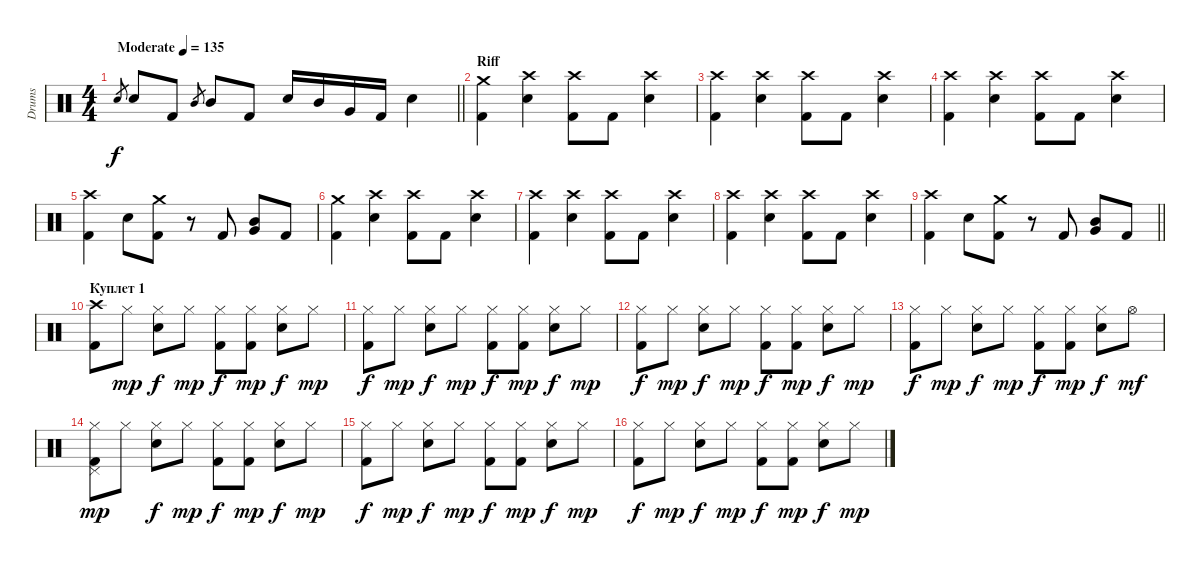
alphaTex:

\track ("Drums" "Drums") {instrument percussion}
\staff {score}
\articulation defaults
\ts (4 4)
\tempo (135 "Moderate")
\clef neutral
\barLineRight lightlight
\ks aminor "Electric Snare (hit)".8{gr dy f} "Electric Snare (hit)".8 "Kick (hit) 2".8 "Mid Tom (hit)".8{gr} "Mid Tom (hit)".8 "Kick (hit) 2".8 "Electric Snare (hit)".16 "Mid Tom (hit)".16 "Very Low Tom (hit)".16 "Kick (hit) 2".16 "Electric Snare (hit)".4
|
\section ("" "Riff")
("Crash medium (hit)" "Kick (hit) 2").4 ("Crash high (hit)" "Electric Snare (hit)").4 ("Crash high (hit)" "Kick (hit) 2").8 "Kick (hit) 2".8 ("Crash high (hit)" "Electric Snare (hit)").4 |
("Crash high (hit)" "Kick (hit) 2").4 ("Crash high (hit)" "Electric Snare (hit)").4 ("Crash high (hit)" "Kick (hit) 2").8 "Kick (hit) 2".8 ("Crash high (hit)" "Electric Snare (hit)").4 |
("Crash high (hit)" "Kick (hit) 2").4 ("Crash high (hit)" "Electric Snare (hit)").4 ("Crash high (hit)" "Kick (hit) 2").8 "Kick (hit) 2".8 ("Crash high (hit)" "Electric Snare (hit)").4 |
("Crash high (hit)" "Kick (hit) 2").4 "Electric Snare (hit)".8 ("Crash medium (hit)" "Kick (hit) 2").8 r.8 "Kick (hit) 2".8 ("Mid Tom (hit)" "Very Low Tom (hit)").8 "Kick (hit) 2".8 |
("Crash medium (hit)" "Kick (hit) 2").4 ("Crash high (hit)" "Electric Snare (hit)").4 ("Crash high (hit)" "Kick (hit) 2").8 "Kick (hit) 2".8 ("Crash high (hit)" "Electric Snare (hit)").4 |
("Crash high (hit)" "Kick (hit) 2").4 ("Crash high (hit)" "Electric Snare (hit)").4 ("Crash high (hit)" "Kick (hit) 2").8 "Kick (hit) 2".8 ("Crash high (hit)" "Electric Snare (hit)").4 |
("Crash high (hit)" "Kick (hit) 2").4 ("Crash high (hit)" "Electric Snare (hit)").4 ("Crash high (hit)" "Kick (hit) 2").8 "Kick (hit) 2".8 ("Crash high (hit)" "Electric Snare (hit)").4 |
\barLineRight lightlight
("Crash high (hit)" "Kick (hit) 2").4 "Electric Snare (hit)".8 ("Crash medium (hit)" "Kick (hit) 2").8 r.8 "Kick (hit) 2".8 ("Mid Tom (hit)" "Very Low Tom (hit)").8 "Kick (hit) 2".8 |
\section ("" "Куплет 1")
("Crash high (hit)" "Kick (hit) 2").8 "Hi-Hat (closed)".8{dy mp} ("Hi-Hat (closed)" "Electric Snare (hit)").8{dy f} "Hi-Hat (closed)".8{dy mp} ("Hi-Hat (closed)" "Kick (hit) 2").8{dy f} ("Hi-Hat (closed)" "Kick (hit) 2").8{dy mp} ("Hi-Hat (closed)" "Electric Snare (hit)").8{dy f} "Hi-Hat (closed)".8{dy mp} |
("Hi-Hat (closed)" "Kick (hit) 2").8{dy f} "Hi-Hat (closed)".8{dy mp} ("Hi-Hat (closed)" "Electric Snare (hit)").8{dy f} "Hi-Hat (closed)".8{dy mp} ("Hi-Hat (closed)" "Kick (hit) 2").8{dy f} ("Hi-Hat (closed)" "Kick (hit) 2").8{dy mp} ("Hi-Hat (closed)" "Electric Snare (hit)").8{dy f} "Hi-Hat (closed)".8{dy mp} |
("Hi-Hat (closed)" "Kick (hit) 2").8{dy f} "Hi-Hat (closed)".8{dy mp} ("Hi-Hat (closed)" "Electric Snare (hit)").8{dy f} "Hi-Hat (closed)".8{dy mp} ("Hi-Hat (closed)" "Kick (hit) 2").8{dy f} ("Hi-Hat (closed)" "Kick (hit) 2").8{dy mp} ("Hi-Hat (closed)" "Electric Snare (hit)").8{dy f} "Hi-Hat (closed)".8{dy mp} |
("Hi-Hat (closed)" "Kick (hit) 2").8{dy f} "Hi-Hat (closed)".8{dy mp} ("Hi-Hat (closed)" "Electric Snare (hit)").8{dy f} "Hi-Hat (closed)".8{dy mp} ("Hi-Hat (closed)" "Kick (hit) 2").8{dy f} ("Hi-Hat (closed)" "Kick (hit) 2").8{dy mp} ("Hi-Hat (closed)" "Electric Snare (hit)").8{dy f} "Hi-Hat (open)".8{dy mf} |
("Hi-Hat (closed)" "Kick (hit) 2" "Pedal Hi-Hat (hit)").8{dy mp} "Hi-Hat (closed)".8 ("Hi-Hat (closed)" "Electric Snare (hit)").8{dy f} "Hi-Hat (closed)".8{dy mp} ("Hi-Hat (closed)" "Kick (hit) 2").8{dy f} ("Hi-Hat (closed)" "Kick (hit) 2").8{dy mp} ("Hi-Hat (closed)" "Electric Snare (hit)").8{dy f} "Hi-Hat (closed)".8{dy mp} |
("Hi-Hat (closed)" "Kick (hit) 2").8{dy f} "Hi-Hat (closed)".8{dy mp} ("Hi-Hat (closed)" "Electric Snare (hit)").8{dy f} "Hi-Hat (closed)".8{dy mp} ("Hi-Hat (closed)" "Kick (hit) 2").8{dy f} ("Hi-Hat (closed)" "Kick (hit) 2").8{dy mp} ("Hi-Hat (closed)" "Electric Snare (hit)").8{dy f} "Hi-Hat (closed)".8{dy mp} |
("Hi-Hat (closed)" "Kick (hit) 2").8{dy f} "Hi-Hat (closed)".8{dy mp} ("Hi-Hat (closed)" "Electric Snare (hit)").8{dy f} "Hi-Hat (closed)".8{dy mp} ("Hi-Hat (closed)" "Kick (hit) 2").8{dy f} ("Hi-Hat (closed)" "Kick (hit) 2").8{dy mp} ("Hi-Hat (closed)" "Electric Snare (hit)").8{dy f} "Hi-Hat (closed)".8{dy mp}
